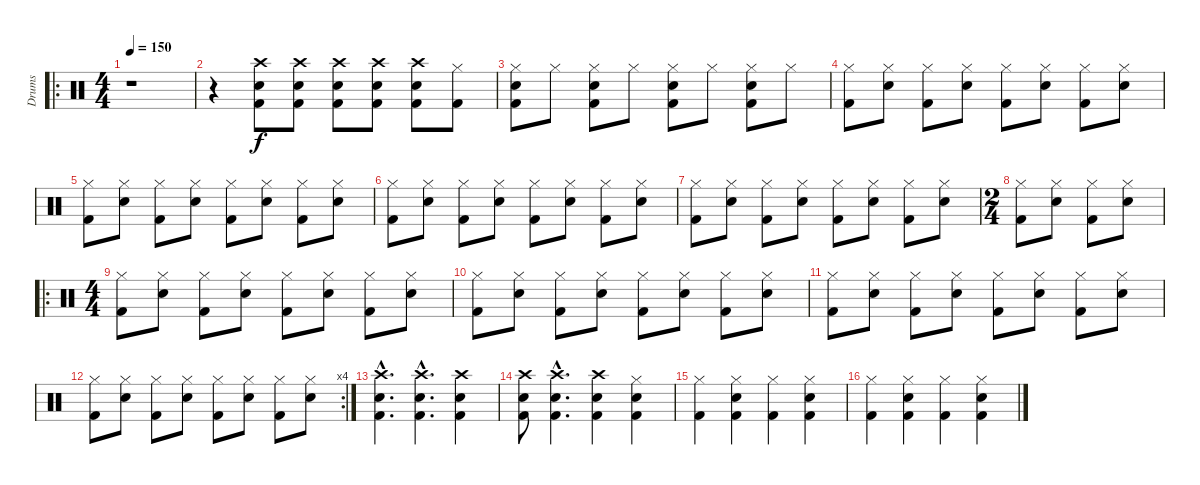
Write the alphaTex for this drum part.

\track ("Drums" "Drums") {instrument percussion}
\staff {score}
\articulation defaults
\ro
\ts (4 4)
\tempo 150
\clef neutral
\ks c
r.1{dy f} |
r.4 ("Electric Snare (hit)" "Kick (hit) 2" "Crash high (hit)").8 ("Electric Snare (hit)" "Kick (hit) 2" "Crash high (hit)").8 ("Electric Snare (hit)" "Kick (hit) 2" "Crash high (hit)").8 ("Electric Snare (hit)" "Kick (hit) 2" "Crash high (hit)").8 ("Electric Snare (hit)" "Kick (hit) 2" "Crash high (hit)").8 ("Hi-Hat (closed)" "Kick (hit) 2").8 |
("Hi-Hat (closed)" "Electric Snare (hit)" "Kick (hit) 2").8 "Hi-Hat (closed)".8 ("Hi-Hat (closed)" "Electric Snare (hit)" "Kick (hit) 2").8 "Hi-Hat (closed)".8 ("Hi-Hat (closed)" "Electric Snare (hit)" "Kick (hit) 2").8 "Hi-Hat (closed)".8 ("Hi-Hat (closed)" "Electric Snare (hit)" "Kick (hit) 2").8 "Hi-Hat (closed)".8 |
("Hi-Hat (closed)" "Kick (hit) 2").8 ("Hi-Hat (closed)" "Electric Snare (hit)").8 ("Hi-Hat (closed)" "Kick (hit) 2").8 ("Hi-Hat (closed)" "Electric Snare (hit)").8 ("Hi-Hat (closed)" "Kick (hit) 2").8 ("Hi-Hat (closed)" "Electric Snare (hit)").8 ("Hi-Hat (closed)" "Kick (hit) 2").8 ("Hi-Hat (closed)" "Electric Snare (hit)").8 |
("Hi-Hat (closed)" "Kick (hit) 2").8 ("Hi-Hat (closed)" "Electric Snare (hit)").8 ("Hi-Hat (closed)" "Kick (hit) 2").8 ("Hi-Hat (closed)" "Electric Snare (hit)").8 ("Hi-Hat (closed)" "Kick (hit) 2").8 ("Hi-Hat (closed)" "Electric Snare (hit)").8 ("Hi-Hat (closed)" "Kick (hit) 2").8 ("Hi-Hat (closed)" "Electric Snare (hit)").8 |
("Hi-Hat (closed)" "Kick (hit) 2").8 ("Hi-Hat (closed)" "Electric Snare (hit)").8 ("Hi-Hat (closed)" "Kick (hit) 2").8 ("Hi-Hat (closed)" "Electric Snare (hit)").8 ("Hi-Hat (closed)" "Kick (hit) 2").8 ("Hi-Hat (closed)" "Electric Snare (hit)").8 ("Hi-Hat (closed)" "Kick (hit) 2").8 ("Hi-Hat (closed)" "Electric Snare (hit)").8 |
("Hi-Hat (closed)" "Kick (hit) 2").8 ("Hi-Hat (closed)" "Electric Snare (hit)").8 ("Hi-Hat (closed)" "Kick (hit) 2").8 ("Hi-Hat (closed)" "Electric Snare (hit)").8 ("Hi-Hat (closed)" "Kick (hit) 2").8 ("Hi-Hat (closed)" "Electric Snare (hit)").8 ("Hi-Hat (closed)" "Kick (hit) 2").8 ("Hi-Hat (closed)" "Electric Snare (hit)").8 |
\ts (2 4)
("Hi-Hat (closed)" "Kick (hit) 2").8 ("Hi-Hat (closed)" "Electric Snare (hit)").8 ("Hi-Hat (closed)" "Kick (hit) 2").8 ("Hi-Hat (closed)" "Electric Snare (hit)").8 |
\ro
\ts (4 4)
("Hi-Hat (closed)" "Kick (hit) 2").8 ("Hi-Hat (closed)" "Electric Snare (hit)").8 ("Hi-Hat (closed)" "Kick (hit) 2").8 ("Hi-Hat (closed)" "Electric Snare (hit)").8 ("Hi-Hat (closed)" "Kick (hit) 2").8 ("Hi-Hat (closed)" "Electric Snare (hit)").8 ("Hi-Hat (closed)" "Kick (hit) 2").8 ("Hi-Hat (closed)" "Electric Snare (hit)").8 |
("Hi-Hat (closed)" "Kick (hit) 2").8 ("Hi-Hat (closed)" "Electric Snare (hit)").8 ("Hi-Hat (closed)" "Kick (hit) 2").8 ("Hi-Hat (closed)" "Electric Snare (hit)").8 ("Hi-Hat (closed)" "Kick (hit) 2").8 ("Hi-Hat (closed)" "Electric Snare (hit)").8 ("Hi-Hat (closed)" "Kick (hit) 2").8 ("Hi-Hat (closed)" "Electric Snare (hit)").8 |
("Hi-Hat (closed)" "Kick (hit) 2").8 ("Hi-Hat (closed)" "Electric Snare (hit)").8 ("Hi-Hat (closed)" "Kick (hit) 2").8 ("Hi-Hat (closed)" "Electric Snare (hit)").8 ("Hi-Hat (closed)" "Kick (hit) 2").8 ("Hi-Hat (closed)" "Electric Snare (hit)").8 ("Hi-Hat (closed)" "Kick (hit) 2").8 ("Hi-Hat (closed)" "Electric Snare (hit)").8 |
\rc 4
("Hi-Hat (closed)" "Kick (hit) 2").8 ("Hi-Hat (closed)" "Electric Snare (hit)").8 ("Hi-Hat (closed)" "Kick (hit) 2").8 ("Hi-Hat (closed)" "Electric Snare (hit)").8 ("Hi-Hat (closed)" "Kick (hit) 2").8 ("Hi-Hat (closed)" "Electric Snare (hit)").8 ("Hi-Hat (closed)" "Kick (hit) 2").8 ("Hi-Hat (closed)" "Electric Snare (hit)").8 |
("Crash high (hit)"{hac} "Kick (hit) 2"{hac} "Electric Snare (hit)"{hac}).4{d} ("Crash high (hit)"{hac} "Kick (hit) 2"{hac} "Electric Snare (hit)"{hac}).4{d} ("Crash high (hit)" "Kick (hit) 2" "Electric Snare (hit)").4 |
("Crash high (hit)" "Kick (hit) 2" "Electric Snare (hit)").8 ("Crash high (hit)"{hac} "Kick (hit) 2"{hac} "Electric Snare (hit)"{hac}).4{d} ("Crash high (hit)" "Kick (hit) 2" "Electric Snare (hit)").4 ("Hi-Hat (closed)" "Kick (hit) 2" "Electric Snare (hit)").4 |
("Hi-Hat (closed)" "Kick (hit) 2").4 ("Hi-Hat (closed)" "Electric Snare (hit)" "Kick (hit) 2").4 ("Hi-Hat (closed)" "Kick (hit) 2").4 ("Hi-Hat (closed)" "Electric Snare (hit)" "Kick (hit) 2").4 |
("Hi-Hat (closed)" "Kick (hit) 2").4 ("Hi-Hat (closed)" "Electric Snare (hit)" "Kick (hit) 2").4 ("Hi-Hat (closed)" "Kick (hit) 2").4 ("Hi-Hat (closed)" "Electric Snare (hit)" "Kick (hit) 2").4
